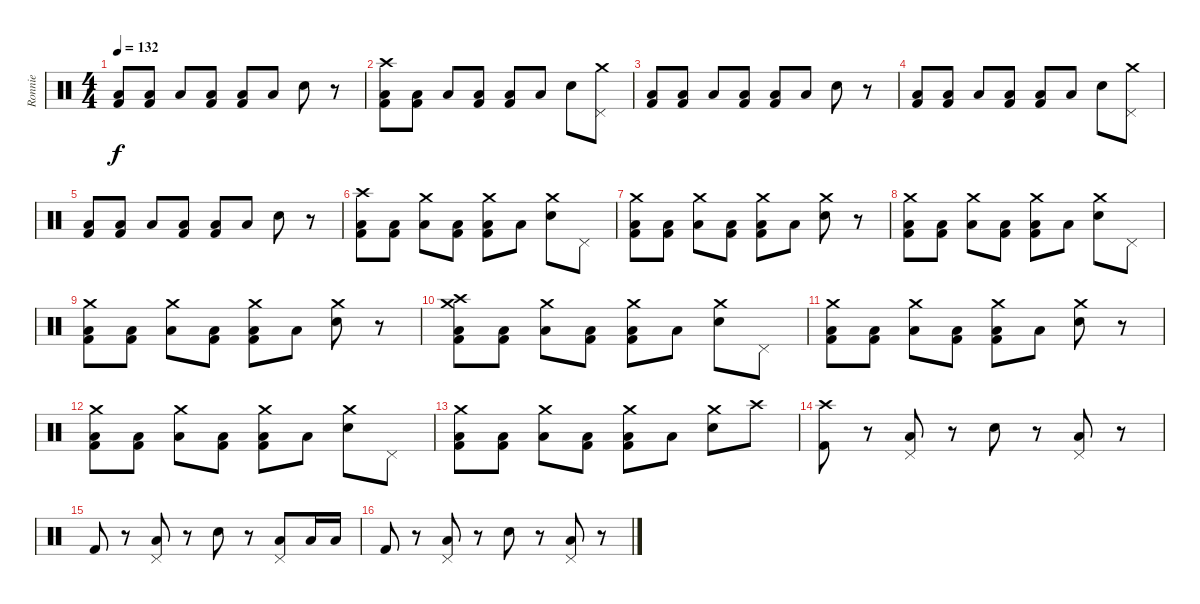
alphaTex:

\track ("Ronnie" "Ronnie") {instrument percussion}
\staff {score}
\articulation defaults
\ts (4 4)
\tempo 132
\clef neutral
\ks c
("Low Floor Tom (hit)" "Kick (hit) 2").8{dy f} ("Low Floor Tom (hit)" "Kick (hit) 2").8 "Low Floor Tom (hit)".8 ("Low Floor Tom (hit)" "Kick (hit) 2").8 ("Low Floor Tom (hit)" "Kick (hit) 2").8 "Low Floor Tom (hit)".8 "Electric Snare (hit)".8 r.8 |
("Crash high (hit)" "Low Floor Tom (hit)" "Kick (hit) 2").8 ("Low Floor Tom (hit)" "Kick (hit) 2").8 "Low Floor Tom (hit)".8 ("Low Floor Tom (hit)" "Kick (hit) 2").8 ("Low Floor Tom (hit)" "Kick (hit) 2").8 "Low Floor Tom (hit)".8 "Electric Snare (hit)".8 ("Crash medium (hit)" "Pedal Hi-Hat (hit)").8 |
("Low Floor Tom (hit)" "Kick (hit) 2").8 ("Low Floor Tom (hit)" "Kick (hit) 2").8 "Low Floor Tom (hit)".8 ("Low Floor Tom (hit)" "Kick (hit) 2").8 ("Low Floor Tom (hit)" "Kick (hit) 2").8 "Low Floor Tom (hit)".8 "Electric Snare (hit)".8 r.8 |
("Low Floor Tom (hit)" "Kick (hit) 2").8 ("Low Floor Tom (hit)" "Kick (hit) 2").8 "Low Floor Tom (hit)".8 ("Low Floor Tom (hit)" "Kick (hit) 2").8 ("Low Floor Tom (hit)" "Kick (hit) 2").8 "Low Floor Tom (hit)".8 "Electric Snare (hit)".8 ("Crash medium (hit)" "Pedal Hi-Hat (hit)").8 |
("Low Floor Tom (hit)" "Kick (hit) 2").8 ("Low Floor Tom (hit)" "Kick (hit) 2").8 "Low Floor Tom (hit)".8 ("Low Floor Tom (hit)" "Kick (hit) 2").8 ("Low Floor Tom (hit)" "Kick (hit) 2").8 "Low Floor Tom (hit)".8 "Electric Snare (hit)".8 r.8 |
("Crash high (hit)" "Low Floor Tom (hit)" "Kick (hit) 2").8 ("Low Floor Tom (hit)" "Kick (hit) 2").8 ("Crash medium (hit)" "Low Floor Tom (hit)").8 ("Low Floor Tom (hit)" "Kick (hit) 2").8 ("Crash medium (hit)" "Low Floor Tom (hit)" "Kick (hit) 2").8 "Low Floor Tom (hit)".8 ("Crash medium (hit)" "Electric Snare (hit)").8 "Pedal Hi-Hat (hit)".8 |
("Crash medium (hit)" "Low Floor Tom (hit)" "Kick (hit) 2").8 ("Low Floor Tom (hit)" "Kick (hit) 2").8 ("Crash medium (hit)" "Low Floor Tom (hit)").8 ("Low Floor Tom (hit)" "Kick (hit) 2").8 ("Crash medium (hit)" "Low Floor Tom (hit)" "Kick (hit) 2").8 "Low Floor Tom (hit)".8 ("Crash medium (hit)" "Electric Snare (hit)").8 r.8 |
("Crash medium (hit)" "Low Floor Tom (hit)" "Kick (hit) 2").8 ("Low Floor Tom (hit)" "Kick (hit) 2").8 ("Crash medium (hit)" "Low Floor Tom (hit)").8 ("Low Floor Tom (hit)" "Kick (hit) 2").8 ("Crash medium (hit)" "Low Floor Tom (hit)" "Kick (hit) 2").8 "Low Floor Tom (hit)".8 ("Crash medium (hit)" "Electric Snare (hit)").8 "Pedal Hi-Hat (hit)".8 |
("Crash medium (hit)" "Low Floor Tom (hit)" "Kick (hit) 2").8 ("Low Floor Tom (hit)" "Kick (hit) 2").8 ("Crash medium (hit)" "Low Floor Tom (hit)").8 ("Low Floor Tom (hit)" "Kick (hit) 2").8 ("Crash medium (hit)" "Low Floor Tom (hit)" "Kick (hit) 2").8 "Low Floor Tom (hit)".8 ("Crash medium (hit)" "Electric Snare (hit)").8 r.8 |
("Crash high (hit)" "Crash medium (hit)" "Low Floor Tom (hit)" "Kick (hit) 2").8 ("Low Floor Tom (hit)" "Kick (hit) 2").8 ("Crash medium (hit)" "Low Floor Tom (hit)").8 ("Low Floor Tom (hit)" "Kick (hit) 2").8 ("Crash medium (hit)" "Low Floor Tom (hit)" "Kick (hit) 2").8 "Low Floor Tom (hit)".8 ("Crash medium (hit)" "Electric Snare (hit)").8 "Pedal Hi-Hat (hit)".8 |
("Crash medium (hit)" "Low Floor Tom (hit)" "Kick (hit) 2").8 ("Low Floor Tom (hit)" "Kick (hit) 2").8 ("Crash medium (hit)" "Low Floor Tom (hit)").8 ("Low Floor Tom (hit)" "Kick (hit) 2").8 ("Crash medium (hit)" "Low Floor Tom (hit)" "Kick (hit) 2").8 "Low Floor Tom (hit)".8 ("Crash medium (hit)" "Electric Snare (hit)").8 r.8 |
("Crash medium (hit)" "Low Floor Tom (hit)" "Kick (hit) 2").8 ("Low Floor Tom (hit)" "Kick (hit) 2").8 ("Crash medium (hit)" "Low Floor Tom (hit)").8 ("Low Floor Tom (hit)" "Kick (hit) 2").8 ("Crash medium (hit)" "Low Floor Tom (hit)" "Kick (hit) 2").8 "Low Floor Tom (hit)".8 ("Crash medium (hit)" "Electric Snare (hit)").8 "Pedal Hi-Hat (hit)".8 |
("Crash medium (hit)" "Low Floor Tom (hit)" "Kick (hit) 2").8 ("Low Floor Tom (hit)" "Kick (hit) 2").8 ("Crash medium (hit)" "Low Floor Tom (hit)").8 ("Low Floor Tom (hit)" "Kick (hit) 2").8 ("Crash medium (hit)" "Low Floor Tom (hit)" "Kick (hit) 2").8 "Low Floor Tom (hit)".8 ("Crash medium (hit)" "Electric Snare (hit)").8 "Crash high (hit)".8 |
("Crash high (hit)" "Kick (hit) 2").8 r.8 ("Pedal Hi-Hat (hit)" "Low Floor Tom (hit)").8 r.8 "Electric Snare (hit)".8 r.8 ("Pedal Hi-Hat (hit)" "Low Floor Tom (hit)").8 r.8 |
"Kick (hit) 2".8 r.8 ("Pedal Hi-Hat (hit)" "Low Floor Tom (hit)").8 r.8 "Electric Snare (hit)".8 r.8 ("Pedal Hi-Hat (hit)" "Low Floor Tom (hit)").8 "Low Floor Tom (hit)".16 "Low Floor Tom (hit)".16 |
"Kick (hit) 2".8 r.8 ("Pedal Hi-Hat (hit)" "Low Floor Tom (hit)").8 r.8 "Electric Snare (hit)".8 r.8 ("Pedal Hi-Hat (hit)" "Low Floor Tom (hit)").8 r.8
